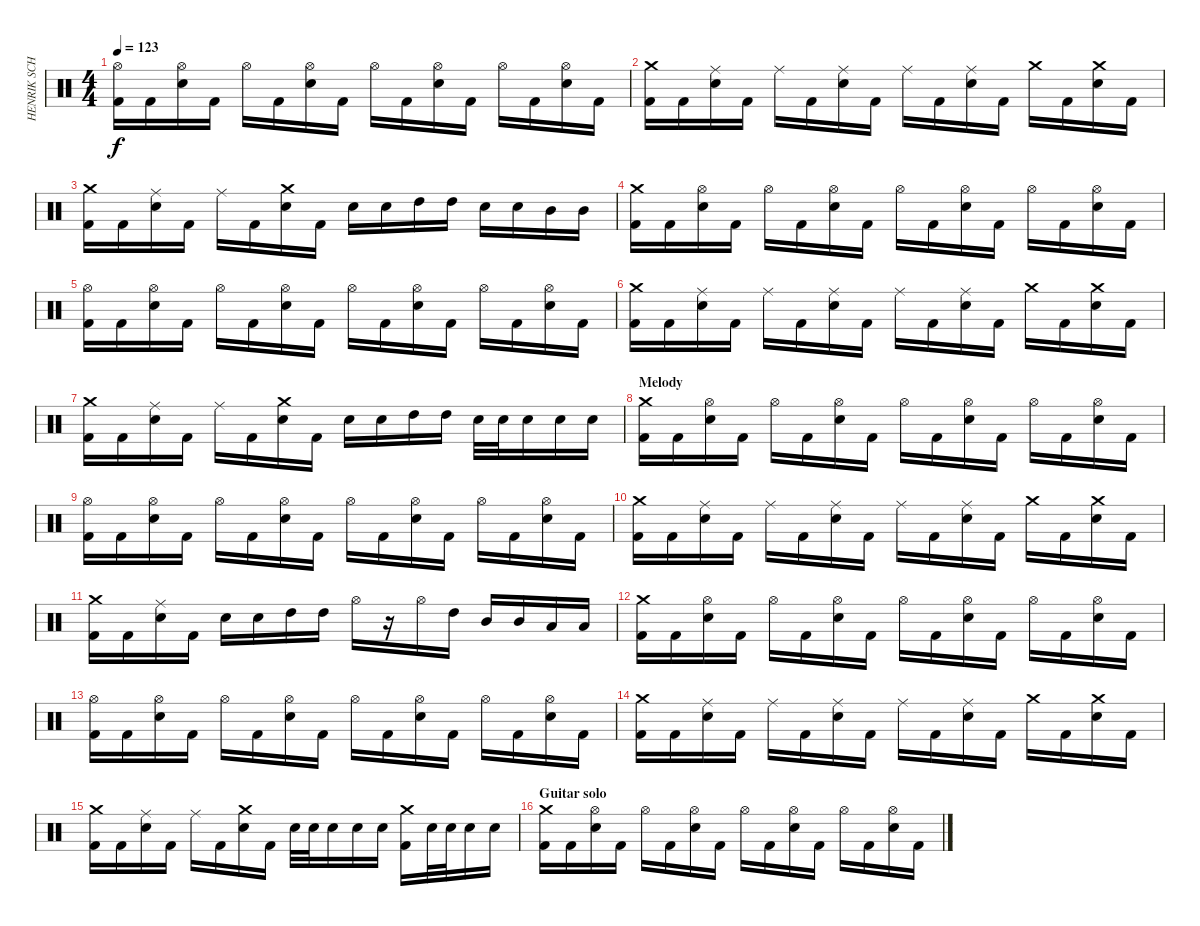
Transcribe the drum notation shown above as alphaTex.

\track ("HENRIK SCHÖNSTÖM " "HENRIK SCH") {instrument percussion}
\staff {score}
\articulation defaults
\ts (4 4)
\tempo 123
\clef neutral
\ks c
("Hi-Hat (open)" "Kick (hit) 2").16{dy f} "Kick (hit) 2".16 ("Hi-Hat (open)" "Snare (hit) 2").16 "Kick (hit) 2".16 "Hi-Hat (open)".16 "Kick (hit) 2".16 ("Hi-Hat (open)" "Snare (hit) 2").16 "Kick (hit) 2".16 "Hi-Hat (open)".16 "Kick (hit) 2".16 ("Hi-Hat (open)" "Snare (hit) 2").16 "Kick (hit) 2".16 "Hi-Hat (open)".16 "Kick (hit) 2".16 ("Hi-Hat (open)" "Snare (hit) 2").16 "Kick (hit) 2".16 |
("Crash medium (hit)" "Kick (hit) 2").16 "Kick (hit) 2".16 ("Ride (middle)" "Snare (hit) 2").16 "Kick (hit) 2".16 "Ride (middle)".16 "Kick (hit) 2".16 ("Ride (middle)" "Snare (hit) 2").16 "Kick (hit) 2".16 "Ride (middle)".16 "Kick (hit) 2".16 ("Ride (middle)" "Snare (hit) 2").16 "Kick (hit) 2".16 "Crash medium (hit)".16 "Kick (hit) 2".16 ("Crash medium (hit)" "Snare (hit) 2").16 "Kick (hit) 2".16 |
("Crash medium (hit)" "Kick (hit) 2").16 "Kick (hit) 2".16 ("Ride (middle)" "Snare (hit) 2").16 "Kick (hit) 2".16 "Ride (middle)".16 "Kick (hit) 2".16 ("Crash medium (hit)" "Snare (hit) 2").16 "Kick (hit) 2".16 "Snare (hit) 2".16 "Snare (hit) 2".16 "High Tom (hit)".16 "High Tom (hit)".16 "Snare (hit) 2".16 "Snare (hit) 2".16 "Mid Tom (hit)".16 "Mid Tom (hit)".16 |
("Crash medium (hit)" "Kick (hit) 2").16 "Kick (hit) 2".16 ("Hi-Hat (open)" "Snare (hit) 2").16 "Kick (hit) 2".16 "Hi-Hat (open)".16 "Kick (hit) 2".16 ("Hi-Hat (open)" "Snare (hit) 2").16 "Kick (hit) 2".16 "Hi-Hat (open)".16 "Kick (hit) 2".16 ("Hi-Hat (open)" "Snare (hit) 2").16 "Kick (hit) 2".16 "Hi-Hat (open)".16 "Kick (hit) 2".16 ("Hi-Hat (open)" "Snare (hit) 2").16 "Kick (hit) 2".16 |
("Hi-Hat (open)" "Kick (hit) 2").16 "Kick (hit) 2".16 ("Hi-Hat (open)" "Snare (hit) 2").16 "Kick (hit) 2".16 "Hi-Hat (open)".16 "Kick (hit) 2".16 ("Hi-Hat (open)" "Snare (hit) 2").16 "Kick (hit) 2".16 "Hi-Hat (open)".16 "Kick (hit) 2".16 ("Hi-Hat (open)" "Snare (hit) 2").16 "Kick (hit) 2".16 "Hi-Hat (open)".16 "Kick (hit) 2".16 ("Hi-Hat (open)" "Snare (hit) 2").16 "Kick (hit) 2".16 |
("Crash medium (hit)" "Kick (hit) 2").16 "Kick (hit) 2".16 ("Ride (middle)" "Snare (hit) 2").16 "Kick (hit) 2".16 "Ride (middle)".16 "Kick (hit) 2".16 ("Ride (middle)" "Snare (hit) 2").16 "Kick (hit) 2".16 "Ride (middle)".16 "Kick (hit) 2".16 ("Ride (middle)" "Snare (hit) 2").16 "Kick (hit) 2".16 "Crash medium (hit)".16 "Kick (hit) 2".16 ("Crash medium (hit)" "Snare (hit) 2").16 "Kick (hit) 2".16 |
("Crash medium (hit)" "Kick (hit) 2").16 "Kick (hit) 2".16 ("Ride (middle)" "Snare (hit) 2").16 "Kick (hit) 2".16 "Ride (middle)".16 "Kick (hit) 2".16 ("Crash medium (hit)" "Snare (hit) 2").16 "Kick (hit) 2".16 "Snare (hit) 2".16 "Snare (hit) 2".16 "High Tom (hit)".16 "High Tom (hit)".16 "Snare (hit) 2".32 "Snare (hit) 2".32 "Snare (hit) 2".16 "Snare (hit) 2".16 "Snare (hit) 2".16 |
\section ("" "Melody")
("Crash medium (hit)" "Kick (hit) 2").16 "Kick (hit) 2".16 ("Hi-Hat (open)" "Snare (hit) 2").16 "Kick (hit) 2".16 "Hi-Hat (open)".16 "Kick (hit) 2".16 ("Hi-Hat (open)" "Snare (hit) 2").16 "Kick (hit) 2".16 "Hi-Hat (open)".16 "Kick (hit) 2".16 ("Hi-Hat (open)" "Snare (hit) 2").16 "Kick (hit) 2".16 "Hi-Hat (open)".16 "Kick (hit) 2".16 ("Hi-Hat (open)" "Snare (hit) 2").16 "Kick (hit) 2".16 |
("Hi-Hat (open)" "Kick (hit) 2").16 "Kick (hit) 2".16 ("Hi-Hat (open)" "Snare (hit) 2").16 "Kick (hit) 2".16 "Hi-Hat (open)".16 "Kick (hit) 2".16 ("Hi-Hat (open)" "Snare (hit) 2").16 "Kick (hit) 2".16 "Hi-Hat (open)".16 "Kick (hit) 2".16 ("Hi-Hat (open)" "Snare (hit) 2").16 "Kick (hit) 2".16 "Hi-Hat (open)".16 "Kick (hit) 2".16 ("Hi-Hat (open)" "Snare (hit) 2").16 "Kick (hit) 2".16 |
("Crash medium (hit)" "Kick (hit) 2").16 "Kick (hit) 2".16 ("Ride (middle)" "Snare (hit) 2").16 "Kick (hit) 2".16 "Ride (middle)".16 "Kick (hit) 2".16 ("Ride (middle)" "Snare (hit) 2").16 "Kick (hit) 2".16 "Ride (middle)".16 "Kick (hit) 2".16 ("Ride (middle)" "Snare (hit) 2").16 "Kick (hit) 2".16 "Crash medium (hit)".16 "Kick (hit) 2".16 ("Crash medium (hit)" "Snare (hit) 2").16 "Kick (hit) 2".16 |
("Crash medium (hit)" "Kick (hit) 2").16 "Kick (hit) 2".16 ("Ride (middle)" "Snare (hit) 2").16 "Kick (hit) 2".16 "Snare (hit) 2".16 "Snare (hit) 2".16 "High Tom (hit)".16 "High Tom (hit)".16 "Hi-Hat (open)".16 r.16 "Hi-Hat (open)".16 "High Tom (hit)".16 "Mid Tom (hit)".16 "Mid Tom (hit)".16 "Low Tom (hit)".16 "Low Tom (hit)".16 |
("Crash medium (hit)" "Kick (hit) 2").16 "Kick (hit) 2".16 ("Hi-Hat (open)" "Snare (hit) 2").16 "Kick (hit) 2".16 "Hi-Hat (open)".16 "Kick (hit) 2".16 ("Hi-Hat (open)" "Snare (hit) 2").16 "Kick (hit) 2".16 "Hi-Hat (open)".16 "Kick (hit) 2".16 ("Hi-Hat (open)" "Snare (hit) 2").16 "Kick (hit) 2".16 "Hi-Hat (open)".16 "Kick (hit) 2".16 ("Hi-Hat (open)" "Snare (hit) 2").16 "Kick (hit) 2".16 |
("Hi-Hat (open)" "Kick (hit) 2").16 "Kick (hit) 2".16 ("Hi-Hat (open)" "Snare (hit) 2").16 "Kick (hit) 2".16 "Hi-Hat (open)".16 "Kick (hit) 2".16 ("Hi-Hat (open)" "Snare (hit) 2").16 "Kick (hit) 2".16 "Hi-Hat (open)".16 "Kick (hit) 2".16 ("Hi-Hat (open)" "Snare (hit) 2").16 "Kick (hit) 2".16 "Hi-Hat (open)".16 "Kick (hit) 2".16 ("Hi-Hat (open)" "Snare (hit) 2").16 "Kick (hit) 2".16 |
("Crash medium (hit)" "Kick (hit) 2").16 "Kick (hit) 2".16 ("Ride (middle)" "Snare (hit) 2").16 "Kick (hit) 2".16 "Ride (middle)".16 "Kick (hit) 2".16 ("Ride (middle)" "Snare (hit) 2").16 "Kick (hit) 2".16 "Ride (middle)".16 "Kick (hit) 2".16 ("Ride (middle)" "Snare (hit) 2").16 "Kick (hit) 2".16 "Crash medium (hit)".16 "Kick (hit) 2".16 ("Crash medium (hit)" "Snare (hit) 2").16 "Kick (hit) 2".16 |
("Crash medium (hit)" "Kick (hit) 2").16 "Kick (hit) 2".16 ("Ride (middle)" "Snare (hit) 2").16 "Kick (hit) 2".16 "Ride (middle)".16 "Kick (hit) 2".16 ("Crash medium (hit)" "Snare (hit) 2").16 "Kick (hit) 2".16 "Snare (hit) 2".32 "Snare (hit) 2".32 "Snare (hit) 2".16 "Snare (hit) 2".16 "Snare (hit) 2".16 ("Crash medium (hit)" "Kick (hit) 2").16 "Snare (hit) 2".32 "Snare (hit) 2".32 "Snare (hit) 2".16 "Snare (hit) 2".16 |
\section ("" "Guitar solo")
("Crash medium (hit)" "Kick (hit) 2").16 "Kick (hit) 2".16 ("Hi-Hat (open)" "Snare (hit) 2").16 "Kick (hit) 2".16 "Hi-Hat (open)".16 "Kick (hit) 2".16 ("Hi-Hat (open)" "Snare (hit) 2").16 "Kick (hit) 2".16 "Hi-Hat (open)".16 "Kick (hit) 2".16 ("Hi-Hat (open)" "Snare (hit) 2").16 "Kick (hit) 2".16 "Hi-Hat (open)".16 "Kick (hit) 2".16 ("Hi-Hat (open)" "Snare (hit) 2").16 "Kick (hit) 2".16
